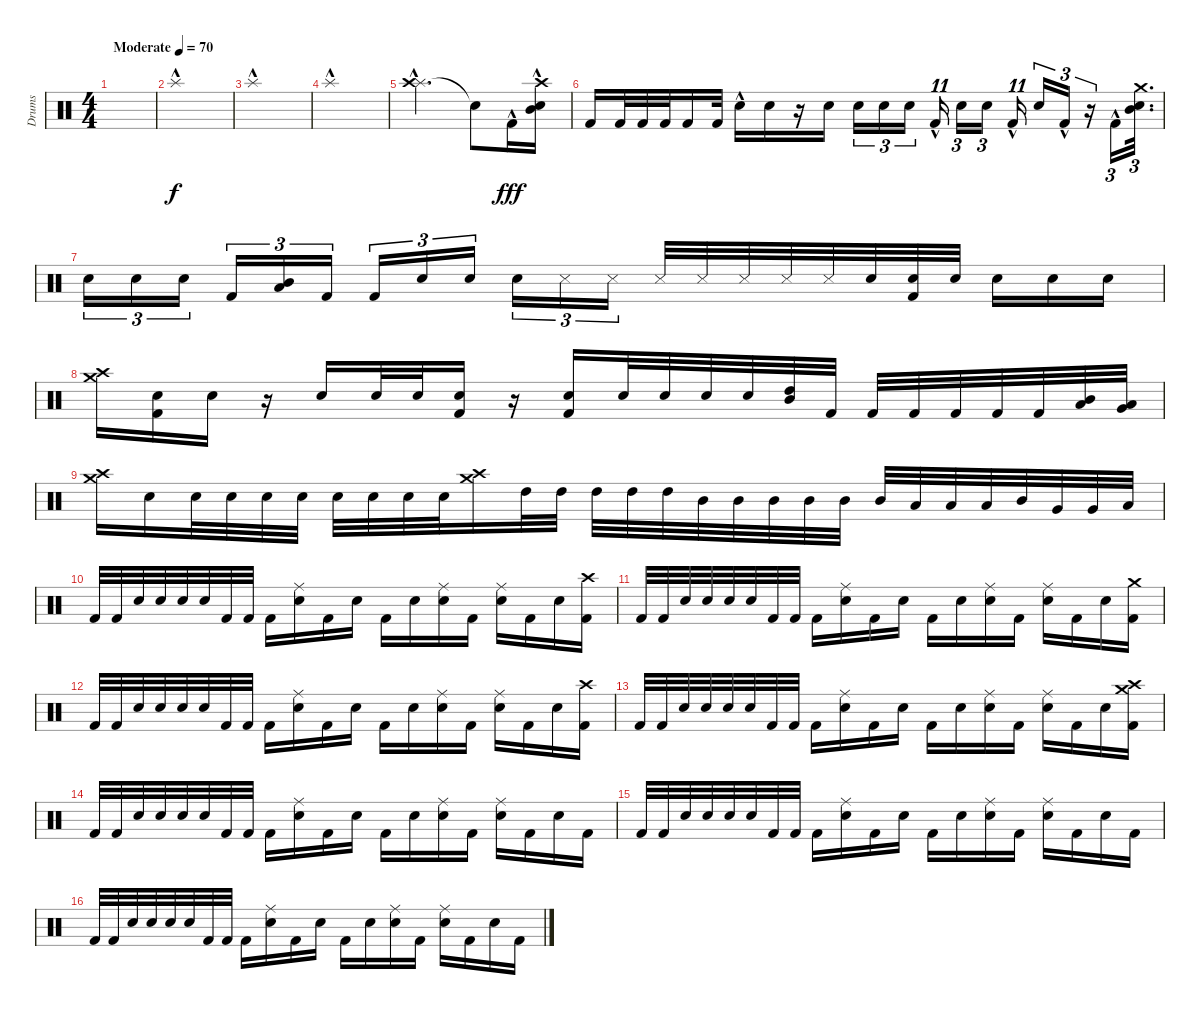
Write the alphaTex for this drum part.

\track ("Drums" "Drums") {instrument percussion}
\staff {score}
\articulation defaults
\ts (4 4)
\tempo (70 "Moderate")
\clef neutral
\ks c
|
"Splash (hit)"{hac}.1 |
"Splash (hit)"{hac}.1 |
"Splash (hit)"{hac}.1 |
("Splash (hit)"{hac} "Crash high (hit)").2{d} "Snare (hit)"{t}.8{dy f} "Kick (hit) 2"{hac}.16{dy fff} ("Crash high (hit)" "Mid Tom (hit)"{hac} "Snare (hit) 2"{hac}).16 |
"Kick (hit) 2".16 "Kick (hit) 2".32 "Kick (hit) 2".32 "Kick (hit) 2".32 "Kick (hit) 2".16 "Kick (hit) 2".32 "Snare (hit) 2"{hac}.16 "Snare (hit) 2".16 r.16 "Snare (hit) 2".16 "Snare (hit) 2".16{tu (3 2)} "Snare (hit) 2".16{tu (3 2)} "Snare (hit) 2".16{tu (3 2) beam splitsecondary} "Kick (hit) 2"{hac}.16{tu (11 8)} "Snare (hit) 2".16{tu (3 2)} "Snare (hit) 2".16{tu (3 2)} "Kick (hit) 2"{hac}.16{tu (11 8)} "Snare (hit) 2".16{tu (3 2)} "Kick (hit) 2"{hac}.16{tu (3 2)} r.16{tu (3 2)} "Kick (hit) 2"{hac}.16{tu (3 2)} ("Crash medium (hit)" "Mid Tom (hit)" "Snare (hit) 2").32{d tu (3 2)} |
"Snare (hit) 2".16{tu (3 2)} "Snare (hit) 2".16{tu (3 2)} "Snare (hit) 2".16{tu (3 2) beam splitsecondary} "Kick (hit) 2".16{tu (3 2)} ("Low Tom (hit)" "Mid Tom (hit)").16{tu (3 2)} "Kick (hit) 2".16{tu (3 2)} "Kick (hit) 2".16{tu (3 2)} "Snare (hit) 2".16{tu (3 2)} "Snare (hit) 2".16{tu (3 2) beam splitsecondary} "Snare (hit) 2".16{tu (3 2)} "Snare (side stick) 3".16{tu (3 2)} "Snare (side stick) 3".16{tu (3 2)} "Snare (side stick) 3".32 "Snare (side stick) 3".32 "Snare (side stick) 3".32 "Snare (side stick) 3".32 "Snare (side stick) 3".32 "Snare (hit) 2".32 ("Snare (hit) 2" "Kick (hit) 2").32 "Snare (hit) 2".32 "Snare (hit) 2".16 "Snare (hit) 2".16 "Snare (hit) 2".16 |
("Crash high (hit)" "Crash medium (hit)").16 ("Snare (hit) 2" "Kick (hit) 2").16 "Snare (hit) 2".16 r.16 "Snare (hit) 2".16 "Snare (hit) 2".32 "Snare (hit) 2".32 ("Snare (hit) 2" "Kick (hit) 2").16 r.16 ("Snare (hit) 2" "Kick (hit) 2").16 "Snare (hit) 2".32 "Snare (hit) 2".32 "Snare (hit) 2".32 "Snare (hit) 2".32 ("High Tom (hit)" "Mid Tom (hit)").32 "Kick (hit) 2".32 "Kick (hit) 2".32 "Kick (hit) 2".32 "Kick (hit) 2".32 "Kick (hit) 2".32 "Kick (hit) 2".32 ("Mid Tom (hit)" "Low Tom (hit)").32 ("Very Low Tom (hit)" "Low Floor Tom (hit)").32 |
("Crash high (hit)" "Crash medium (hit)").16 "Snare (hit) 2".16 "Snare (hit) 2".32 "Snare (hit) 2".32 "Snare (hit) 2".32 "Snare (hit) 2".32 "Snare (hit) 2".32 "Snare (hit) 2".32 "Snare (hit) 2".32 "Snare (hit) 2".32 ("Crash high (hit)" "Crash medium (hit)").16 "High Tom (hit)".32 "High Tom (hit)".32 "High Tom (hit)".32 "High Tom (hit)".32 "High Tom (hit)".32 "Mid Tom (hit)".32 "Mid Tom (hit)".32 "Mid Tom (hit)".32 "Mid Tom (hit)".32 "Mid Tom (hit)".32 "Mid Tom (hit)".32 "Low Tom (hit)".32 "Low Tom (hit)".32 "Low Tom (hit)".32 "Mid Tom (hit)".32 "Very Low Tom (hit)".32 "Very Low Tom (hit)".32 "Low Floor Tom (hit)".32 |
"Kick (hit) 2".32 "Kick (hit) 2".32 "Snare (hit) 2".32 "Snare (hit) 2".32 "Snare (hit) 2".32 "Snare (hit) 2".32 "Kick (hit) 2".32 "Kick (hit) 2".32 "Kick (hit) 2".16 ("Ride (middle)" "Snare (hit) 2").16 "Kick (hit) 2".16 "Snare (hit) 2".16 "Kick (hit) 2".16 "Snare (hit) 2".16 ("Ride (middle)" "Snare (hit) 2").16 "Kick (hit) 2".16 ("Ride (middle)" "Snare (hit) 2").16 "Kick (hit) 2".16 "Snare (hit) 2".16 ("Crash high (hit)" "Kick (hit) 2").16 |
"Kick (hit) 2".32 "Kick (hit) 2".32 "Snare (hit) 2".32 "Snare (hit) 2".32 "Snare (hit) 2".32 "Snare (hit) 2".32 "Kick (hit) 2".32 "Kick (hit) 2".32 "Kick (hit) 2".16 ("Ride (middle)" "Snare (hit) 2").16 "Kick (hit) 2".16 "Snare (hit) 2".16 "Kick (hit) 2".16 "Snare (hit) 2".16 ("Ride (middle)" "Snare (hit) 2").16 "Kick (hit) 2".16 ("Ride (middle)" "Snare (hit) 2").16 "Kick (hit) 2".16 "Snare (hit) 2".16 ("Crash medium (hit)" "Kick (hit) 2").16 |
"Kick (hit) 2".32 "Kick (hit) 2".32 "Snare (hit) 2".32 "Snare (hit) 2".32 "Snare (hit) 2".32 "Snare (hit) 2".32 "Kick (hit) 2".32 "Kick (hit) 2".32 "Kick (hit) 2".16 ("Ride (middle)" "Snare (hit) 2").16 "Kick (hit) 2".16 "Snare (hit) 2".16 "Kick (hit) 2".16 "Snare (hit) 2".16 ("Ride (middle)" "Snare (hit) 2").16 "Kick (hit) 2".16 ("Ride (middle)" "Snare (hit) 2").16 "Kick (hit) 2".16 "Snare (hit) 2".16 ("Crash high (hit)" "Kick (hit) 2").16 |
"Kick (hit) 2".32 "Kick (hit) 2".32 "Snare (hit) 2".32 "Snare (hit) 2".32 "Snare (hit) 2".32 "Snare (hit) 2".32 "Kick (hit) 2".32 "Kick (hit) 2".32 "Kick (hit) 2".16 ("Ride (middle)" "Snare (hit) 2").16 "Kick (hit) 2".16 "Snare (hit) 2".16 "Kick (hit) 2".16 "Snare (hit) 2".16 ("Ride (middle)" "Snare (hit) 2").16 "Kick (hit) 2".16 ("Ride (middle)" "Snare (hit) 2").16 "Kick (hit) 2".16 "Snare (hit) 2".16 ("Crash high (hit)" "Crash medium (hit)" "Kick (hit) 2").16 |
"Kick (hit) 2".32 "Kick (hit) 2".32 "Snare (hit) 2".32 "Snare (hit) 2".32 "Snare (hit) 2".32 "Snare (hit) 2".32 "Kick (hit) 2".32 "Kick (hit) 2".32 "Kick (hit) 2".16 ("Ride (middle)" "Snare (hit) 2").16 "Kick (hit) 2".16 "Snare (hit) 2".16 "Kick (hit) 2".16 "Snare (hit) 2".16 ("Ride (middle)" "Snare (hit) 2").16 "Kick (hit) 2".16 ("Ride (middle)" "Snare (hit) 2").16 "Kick (hit) 2".16 "Snare (hit) 2".16 "Kick (hit) 2".16 |
"Kick (hit) 2".32 "Kick (hit) 2".32 "Snare (hit) 2".32 "Snare (hit) 2".32 "Snare (hit) 2".32 "Snare (hit) 2".32 "Kick (hit) 2".32 "Kick (hit) 2".32 "Kick (hit) 2".16 ("Ride (middle)" "Snare (hit) 2").16 "Kick (hit) 2".16 "Snare (hit) 2".16 "Kick (hit) 2".16 "Snare (hit) 2".16 ("Ride (middle)" "Snare (hit) 2").16 "Kick (hit) 2".16 ("Ride (middle)" "Snare (hit) 2").16 "Kick (hit) 2".16 "Snare (hit) 2".16 "Kick (hit) 2".16 |
"Kick (hit) 2".32 "Kick (hit) 2".32 "Snare (hit) 2".32 "Snare (hit) 2".32 "Snare (hit) 2".32 "Snare (hit) 2".32 "Kick (hit) 2".32 "Kick (hit) 2".32 "Kick (hit) 2".16 ("Ride (middle)" "Snare (hit) 2").16 "Kick (hit) 2".16 "Snare (hit) 2".16 "Kick (hit) 2".16 "Snare (hit) 2".16 ("Ride (middle)" "Snare (hit) 2").16 "Kick (hit) 2".16 ("Ride (middle)" "Snare (hit) 2").16 "Kick (hit) 2".16 "Snare (hit) 2".16 "Kick (hit) 2".16
